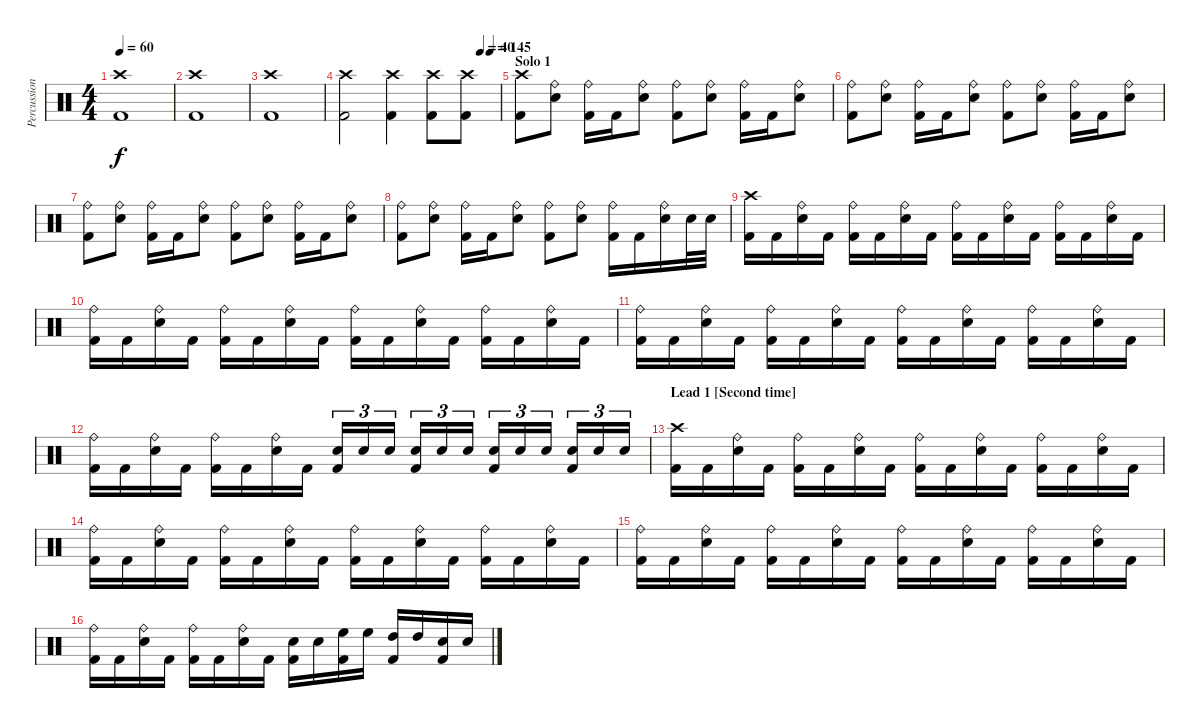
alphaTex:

\track ("Percussion" "Percussion") {instrument percussion}
\staff {score}
\articulation defaults
\ts (4 4)
\tempo 60
\clef neutral
\ks c
("Kick (hit) 2" "Crash high (hit)").1{dy f} |
("Kick (hit) 2" "Crash high (hit)").1 |
("Kick (hit) 2" "Crash high (hit)").1 |
\tempo (40 0.875)
\tempo (145 0.9375)
("Kick (hit) 2" "Crash high (hit)").2 ("Kick (hit) 2" "Crash high (hit)").4 ("Kick (hit) 2" "Crash high (hit)").8 ("Kick (hit) 2" "Crash high (hit)").8 |
\section ("" "Solo 1")
("Kick (hit) 2" "Crash high (hit)").8 ("Electric Snare (hit)" "Ride (bell)").8 ("Kick (hit) 2" "Ride (bell)").16 "Kick (hit) 2".16 ("Electric Snare (hit)" "Ride (bell)").8 ("Kick (hit) 2" "Ride (bell)").8 ("Electric Snare (hit)" "Ride (bell)").8 ("Kick (hit) 2" "Ride (bell)").16 "Kick (hit) 2".16 ("Electric Snare (hit)" "Ride (bell)").8 |
("Kick (hit) 2" "Ride (bell)").8 ("Electric Snare (hit)" "Ride (bell)").8 ("Kick (hit) 2" "Ride (bell)").16 "Kick (hit) 2".16 ("Electric Snare (hit)" "Ride (bell)").8 ("Kick (hit) 2" "Ride (bell)").8 ("Electric Snare (hit)" "Ride (bell)").8 ("Kick (hit) 2" "Ride (bell)").16 "Kick (hit) 2".16 ("Electric Snare (hit)" "Ride (bell)").8 |
("Kick (hit) 2" "Ride (bell)").8 ("Electric Snare (hit)" "Ride (bell)").8 ("Kick (hit) 2" "Ride (bell)").16 "Kick (hit) 2".16 ("Electric Snare (hit)" "Ride (bell)").8 ("Kick (hit) 2" "Ride (bell)").8 ("Electric Snare (hit)" "Ride (bell)").8 ("Kick (hit) 2" "Ride (bell)").16 "Kick (hit) 2".16 ("Electric Snare (hit)" "Ride (bell)").8 |
("Kick (hit) 2" "Ride (bell)").8 ("Electric Snare (hit)" "Ride (bell)").8 ("Kick (hit) 2" "Ride (bell)").16 "Kick (hit) 2".16 ("Electric Snare (hit)" "Ride (bell)").8 ("Kick (hit) 2" "Ride (bell)").8 ("Electric Snare (hit)" "Ride (bell)").8 ("Kick (hit) 2" "Ride (bell)").16 "Kick (hit) 2".16 ("Electric Snare (hit)" "Ride (bell)").16 "Electric Snare (hit)".32 "Electric Snare (hit)".32 |
("Kick (hit) 2" "Crash high (hit)").16 "Kick (hit) 2".16 ("Electric Snare (hit)" "Ride (bell)").16 "Kick (hit) 2".16 ("Kick (hit) 2" "Ride (bell)").16 "Kick (hit) 2".16 ("Electric Snare (hit)" "Ride (bell)").16 "Kick (hit) 2".16 ("Kick (hit) 2" "Ride (bell)").16 "Kick (hit) 2".16 ("Electric Snare (hit)" "Ride (bell)").16 "Kick (hit) 2".16 ("Kick (hit) 2" "Ride (bell)").16 "Kick (hit) 2".16 ("Electric Snare (hit)" "Ride (bell)").16 "Kick (hit) 2".16 |
("Kick (hit) 2" "Ride (bell)").16 "Kick (hit) 2".16 ("Electric Snare (hit)" "Ride (bell)").16 "Kick (hit) 2".16 ("Kick (hit) 2" "Ride (bell)").16 "Kick (hit) 2".16 ("Electric Snare (hit)" "Ride (bell)").16 "Kick (hit) 2".16 ("Kick (hit) 2" "Ride (bell)").16 "Kick (hit) 2".16 ("Electric Snare (hit)" "Ride (bell)").16 "Kick (hit) 2".16 ("Kick (hit) 2" "Ride (bell)").16 "Kick (hit) 2".16 ("Electric Snare (hit)" "Ride (bell)").16 "Kick (hit) 2".16 |
("Kick (hit) 2" "Ride (bell)").16 "Kick (hit) 2".16 ("Electric Snare (hit)" "Ride (bell)").16 "Kick (hit) 2".16 ("Kick (hit) 2" "Ride (bell)").16 "Kick (hit) 2".16 ("Electric Snare (hit)" "Ride (bell)").16 "Kick (hit) 2".16 ("Kick (hit) 2" "Ride (bell)").16 "Kick (hit) 2".16 ("Electric Snare (hit)" "Ride (bell)").16 "Kick (hit) 2".16 ("Kick (hit) 2" "Ride (bell)").16 "Kick (hit) 2".16 ("Electric Snare (hit)" "Ride (bell)").16 "Kick (hit) 2".16 |
("Kick (hit) 2" "Ride (bell)").16 "Kick (hit) 2".16 ("Electric Snare (hit)" "Ride (bell)").16 "Kick (hit) 2".16 ("Kick (hit) 2" "Ride (bell)").16 "Kick (hit) 2".16 ("Electric Snare (hit)" "Ride (bell)").16 "Kick (hit) 2".16 ("Electric Snare (hit)" "Kick (hit) 2").16{tu (3 2)} "Electric Snare (hit)".16{tu (3 2)} "Electric Snare (hit)".16{tu (3 2)} ("Electric Snare (hit)" "Kick (hit) 2").16{tu (3 2)} "Electric Snare (hit)".16{tu (3 2)} "Electric Snare (hit)".16{tu (3 2)} ("Electric Snare (hit)" "Kick (hit) 2").16{tu (3 2)} "Electric Snare (hit)".16{tu (3 2)} "Electric Snare (hit)".16{tu (3 2)} ("Electric Snare (hit)" "Kick (hit) 2").16{tu (3 2)} "Electric Snare (hit)".16{tu (3 2)} "Electric Snare (hit)".16{tu (3 2)} |
\section ("" "Lead 1 [Second time]")
("Kick (hit) 2" "Crash high (hit)").16 "Kick (hit) 2".16 ("Electric Snare (hit)" "Ride (bell)").16 "Kick (hit) 2".16 ("Kick (hit) 2" "Ride (bell)").16 "Kick (hit) 2".16 ("Electric Snare (hit)" "Ride (bell)").16 "Kick (hit) 2".16 ("Kick (hit) 2" "Ride (bell)").16 "Kick (hit) 2".16 ("Electric Snare (hit)" "Ride (bell)").16 "Kick (hit) 2".16 ("Kick (hit) 2" "Ride (bell)").16 "Kick (hit) 2".16 ("Electric Snare (hit)" "Ride (bell)").16 "Kick (hit) 2".16 |
("Kick (hit) 2" "Ride (bell)").16 "Kick (hit) 2".16 ("Electric Snare (hit)" "Ride (bell)").16 "Kick (hit) 2".16 ("Kick (hit) 2" "Ride (bell)").16 "Kick (hit) 2".16 ("Electric Snare (hit)" "Ride (bell)").16 "Kick (hit) 2".16 ("Kick (hit) 2" "Ride (bell)").16 "Kick (hit) 2".16 ("Electric Snare (hit)" "Ride (bell)").16 "Kick (hit) 2".16 ("Kick (hit) 2" "Ride (bell)").16 "Kick (hit) 2".16 ("Electric Snare (hit)" "Ride (bell)").16 "Kick (hit) 2".16 |
("Kick (hit) 2" "Ride (bell)").16 "Kick (hit) 2".16 ("Electric Snare (hit)" "Ride (bell)").16 "Kick (hit) 2".16 ("Kick (hit) 2" "Ride (bell)").16 "Kick (hit) 2".16 ("Electric Snare (hit)" "Ride (bell)").16 "Kick (hit) 2".16 ("Kick (hit) 2" "Ride (bell)").16 "Kick (hit) 2".16 ("Electric Snare (hit)" "Ride (bell)").16 "Kick (hit) 2".16 ("Kick (hit) 2" "Ride (bell)").16 "Kick (hit) 2".16 ("Electric Snare (hit)" "Ride (bell)").16 "Kick (hit) 2".16 |
("Kick (hit) 2" "Ride (bell)").16 "Kick (hit) 2".16 ("Electric Snare (hit)" "Ride (bell)").16 "Kick (hit) 2".16 ("Kick (hit) 2" "Ride (bell)").16 "Kick (hit) 2".16 ("Electric Snare (hit)" "Ride (bell)").16 "Kick (hit) 2".16 ("Electric Snare (hit)" "Kick (hit) 2").16 "Electric Snare (hit)".16 ("High Floor Tom (hit)" "Kick (hit) 2").16 "High Floor Tom (hit)".16 ("High Tom (hit)" "Kick (hit) 2").16 "High Tom (hit)".16 ("Electric Snare (hit)" "Kick (hit) 2").16 "Electric Snare (hit)".16
